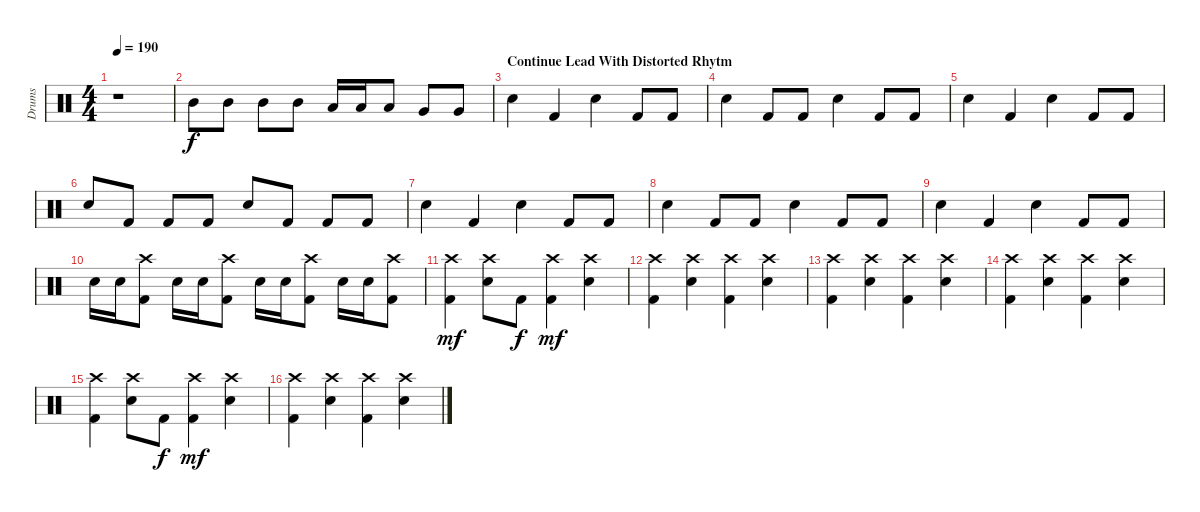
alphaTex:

\track ("Drums" "Drums") {instrument percussion}
\staff {score}
\articulation defaults
\ts (4 4)
\tempo 190
\clef neutral
\ks c
r.1{dy mf} |
"Mid Tom (hit)".8{dy f} "Mid Tom (hit)".8 "Mid Tom (hit)".8 "Mid Tom (hit)".8 "Low Tom (hit)".16 "Low Tom (hit)".16 "Low Tom (hit)".8 "Very Low Tom (hit)".8 "Very Low Tom (hit)".8 |
\section ("" "Continue Lead With Distorted Rhytm")
"Snare (hit) 2".4 "Kick (hit) 2".4 "Snare (hit) 2".4 "Kick (hit) 2".8 "Kick (hit) 2".8 |
"Snare (hit) 2".4 "Kick (hit) 2".8 "Kick (hit) 2".8 "Snare (hit) 2".4 "Kick (hit) 2".8 "Kick (hit) 2".8 |
"Snare (hit) 2".4 "Kick (hit) 2".4 "Snare (hit) 2".4 "Kick (hit) 2".8 "Kick (hit) 2".8 |
"Snare (hit) 2".8 "Kick (hit) 2".8 "Kick (hit) 2".8 "Kick (hit) 2".8 "Snare (hit) 2".8 "Kick (hit) 2".8 "Kick (hit) 2".8 "Kick (hit) 2".8 |
"Snare (hit) 2".4 "Kick (hit) 2".4 "Snare (hit) 2".4 "Kick (hit) 2".8 "Kick (hit) 2".8 |
"Snare (hit) 2".4 "Kick (hit) 2".8 "Kick (hit) 2".8 "Snare (hit) 2".4 "Kick (hit) 2".8 "Kick (hit) 2".8 |
"Snare (hit) 2".4 "Kick (hit) 2".4 "Snare (hit) 2".4 "Kick (hit) 2".8 "Kick (hit) 2".8 |
"Snare (hit) 2".16 "Snare (hit) 2".16 ("Crash high (hit)" "Kick (hit) 2").8 "Snare (hit) 2".16 "Snare (hit) 2".16 ("Crash high (hit)" "Kick (hit) 2").8 "Snare (hit) 2".16 "Snare (hit) 2".16 ("Crash high (hit)" "Kick (hit) 2").8 "Snare (hit) 2".16 "Snare (hit) 2".16 ("Crash high (hit)" "Kick (hit) 2").8 |
("Crash high (hit)" "Kick (hit) 2").4{dy mf} ("Crash high (hit)" "Snare (hit) 2").8 "Kick (hit) 2".8{dy f} ("Crash high (hit)" "Kick (hit) 2").4{dy mf} ("Crash high (hit)" "Snare (hit) 2").4 |
("Crash high (hit)" "Kick (hit) 2").4 ("Crash high (hit)" "Snare (hit) 2").4 ("Crash high (hit)" "Kick (hit) 2").4 ("Crash high (hit)" "Snare (hit) 2").4 |
("Crash high (hit)" "Kick (hit) 2").4 ("Crash high (hit)" "Snare (hit) 2").4 ("Crash high (hit)" "Kick (hit) 2").4 ("Crash high (hit)" "Snare (hit) 2").4 |
("Crash high (hit)" "Kick (hit) 2").4 ("Crash high (hit)" "Snare (hit) 2").4 ("Crash high (hit)" "Kick (hit) 2").4 ("Crash high (hit)" "Snare (hit) 2").4 |
("Crash high (hit)" "Kick (hit) 2").4 ("Crash high (hit)" "Snare (hit) 2").8 "Kick (hit) 2".8{dy f} ("Crash high (hit)" "Kick (hit) 2").4{dy mf} ("Crash high (hit)" "Snare (hit) 2").4 |
("Crash high (hit)" "Kick (hit) 2").4 ("Crash high (hit)" "Snare (hit) 2").4 ("Crash high (hit)" "Kick (hit) 2").4 ("Crash high (hit)" "Snare (hit) 2").4
